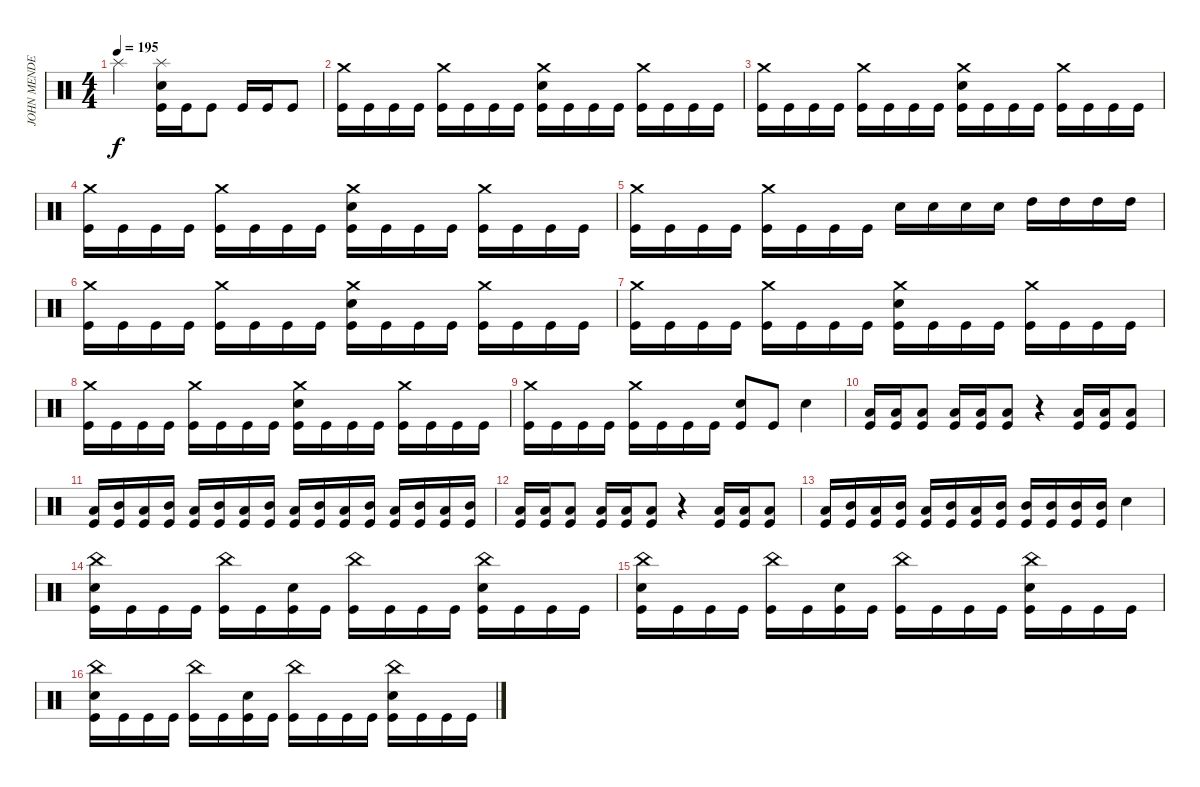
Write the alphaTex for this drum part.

\track ("JOHN MENDESSSSSSS" "JOHN MENDE") {instrument percussion}
\staff {score}
\articulation defaults
\ts (4 4)
\tempo 195
\clef neutral
\ks c "Splash (hit)".2{dy f}
("Kick (hit)" "Snare (hit) 2" "Splash (hit)").16 "Kick (hit)".16 "Kick (hit)".8 "Kick (hit)".16 "Kick (hit)".16 "Kick (hit)".8 |
("Kick (hit)" "Crash medium (hit)").16 "Kick (hit)".16 "Kick (hit)".16 "Kick (hit)".16 ("Kick (hit)" "Crash medium (hit)").16 "Kick (hit)".16 "Kick (hit)".16 "Kick (hit)".16 ("Kick (hit)" "Snare (hit) 2" "Crash medium (hit)").16 "Kick (hit)".16 "Kick (hit)".16 "Kick (hit)".16 ("Kick (hit)" "Crash medium (hit)").16 "Kick (hit)".16 "Kick (hit)".16 "Kick (hit)".16 |
("Kick (hit)" "Crash medium (hit)").16 "Kick (hit)".16 "Kick (hit)".16 "Kick (hit)".16 ("Kick (hit)" "Crash medium (hit)").16 "Kick (hit)".16 "Kick (hit)".16 "Kick (hit)".16 ("Kick (hit)" "Snare (hit) 2" "Crash medium (hit)").16 "Kick (hit)".16 "Kick (hit)".16 "Kick (hit)".16 ("Kick (hit)" "Crash medium (hit)").16 "Kick (hit)".16 "Kick (hit)".16 "Kick (hit)".16 |
("Kick (hit)" "Crash medium (hit)").16 "Kick (hit)".16 "Kick (hit)".16 "Kick (hit)".16 ("Kick (hit)" "Crash medium (hit)").16 "Kick (hit)".16 "Kick (hit)".16 "Kick (hit)".16 ("Kick (hit)" "Snare (hit) 2" "Crash medium (hit)").16 "Kick (hit)".16 "Kick (hit)".16 "Kick (hit)".16 ("Kick (hit)" "Crash medium (hit)").16 "Kick (hit)".16 "Kick (hit)".16 "Kick (hit)".16 |
("Kick (hit)" "Crash medium (hit)").16 "Kick (hit)".16 "Kick (hit)".16 "Kick (hit)".16 ("Kick (hit)" "Crash medium (hit)").16 "Kick (hit)".16 "Kick (hit)".16 "Kick (hit)".16 "Snare (hit) 2".16 "Snare (hit) 2".16 "Snare (hit) 2".16 "Snare (hit) 2".16 "High Tom (hit)".16 "High Tom (hit)".16 "High Tom (hit)".16 "High Tom (hit)".16 |
("Kick (hit)" "Crash medium (hit)").16 "Kick (hit)".16 "Kick (hit)".16 "Kick (hit)".16 ("Kick (hit)" "Crash medium (hit)").16 "Kick (hit)".16 "Kick (hit)".16 "Kick (hit)".16 ("Kick (hit)" "Snare (hit) 2" "Crash medium (hit)").16 "Kick (hit)".16 "Kick (hit)".16 "Kick (hit)".16 ("Kick (hit)" "Crash medium (hit)").16 "Kick (hit)".16 "Kick (hit)".16 "Kick (hit)".16 |
("Kick (hit)" "Crash medium (hit)").16 "Kick (hit)".16 "Kick (hit)".16 "Kick (hit)".16 ("Kick (hit)" "Crash medium (hit)").16 "Kick (hit)".16 "Kick (hit)".16 "Kick (hit)".16 ("Kick (hit)" "Snare (hit) 2" "Crash medium (hit)").16 "Kick (hit)".16 "Kick (hit)".16 "Kick (hit)".16 ("Kick (hit)" "Crash medium (hit)").16 "Kick (hit)".16 "Kick (hit)".16 "Kick (hit)".16 |
("Kick (hit)" "Crash medium (hit)").16 "Kick (hit)".16 "Kick (hit)".16 "Kick (hit)".16 ("Kick (hit)" "Crash medium (hit)").16 "Kick (hit)".16 "Kick (hit)".16 "Kick (hit)".16 ("Kick (hit)" "Snare (hit) 2" "Crash medium (hit)").16 "Kick (hit)".16 "Kick (hit)".16 "Kick (hit)".16 ("Kick (hit)" "Crash medium (hit)").16 "Kick (hit)".16 "Kick (hit)".16 "Kick (hit)".16 |
("Kick (hit)" "Crash medium (hit)").16 "Kick (hit)".16 "Kick (hit)".16 "Kick (hit)".16 ("Kick (hit)" "Crash medium (hit)").16 "Kick (hit)".16 "Kick (hit)".16 "Kick (hit)".16 ("Kick (hit)" "Snare (hit) 2").8 "Kick (hit)".8 "Snare (hit) 2".4 |
("Kick (hit)" "Low Tom (hit)").16 ("Kick (hit)" "Low Tom (hit)").16 ("Kick (hit)" "Low Tom (hit)").8 ("Kick (hit)" "Low Tom (hit)").16 ("Kick (hit)" "Low Tom (hit)").16 ("Kick (hit)" "Low Tom (hit)").8 r.4 ("Kick (hit)" "Low Tom (hit)").16 ("Kick (hit)" "Low Tom (hit)").16 ("Kick (hit)" "Low Tom (hit)").8 |
("Kick (hit)" "Low Tom (hit)").16 ("Kick (hit)" "Mid Tom (hit)").16 ("Kick (hit)" "Low Tom (hit)").16 ("Kick (hit)" "Mid Tom (hit)").16 ("Kick (hit)" "Low Tom (hit)").16 ("Kick (hit)" "Mid Tom (hit)").16 ("Kick (hit)" "Low Tom (hit)").16 ("Kick (hit)" "Mid Tom (hit)").16 ("Kick (hit)" "Low Tom (hit)").16 ("Kick (hit)" "Mid Tom (hit)").16 ("Kick (hit)" "Low Tom (hit)").16 ("Kick (hit)" "Mid Tom (hit)").16 ("Kick (hit)" "Low Tom (hit)").16 ("Kick (hit)" "Mid Tom (hit)").16 ("Kick (hit)" "Low Tom (hit)").16 ("Kick (hit)" "Mid Tom (hit)").16 |
("Kick (hit)" "Low Tom (hit)").16 ("Kick (hit)" "Low Tom (hit)").16 ("Kick (hit)" "Low Tom (hit)").8 ("Kick (hit)" "Low Tom (hit)").16 ("Kick (hit)" "Low Tom (hit)").16 ("Kick (hit)" "Low Tom (hit)").8 r.4 ("Kick (hit)" "Low Tom (hit)").16 ("Kick (hit)" "Low Tom (hit)").16 ("Kick (hit)" "Low Tom (hit)").8 |
("Kick (hit)" "Low Tom (hit)").16 ("Kick (hit)" "Mid Tom (hit)").16 ("Kick (hit)" "Low Tom (hit)").16 ("Kick (hit)" "Mid Tom (hit)").16 ("Kick (hit)" "Low Tom (hit)").16 ("Kick (hit)" "Mid Tom (hit)").16 ("Kick (hit)" "Low Tom (hit)").16 ("Kick (hit)" "Mid Tom (hit)").16 ("Kick (hit)" "Mid Tom (hit)").16 ("Kick (hit)" "Mid Tom (hit)").16 ("Kick (hit)" "Mid Tom (hit)").16 ("Kick (hit)" "Mid Tom (hit)").16 "Snare (hit) 2".4 |
("Kick (hit)" "Snare (hit) 2" "China (hit)").16 "Kick (hit)".16 "Kick (hit)".16 "Kick (hit)".16 ("Kick (hit)" "China (hit)").16 "Kick (hit)".16 ("Kick (hit)" "Snare (hit) 2").16 "Kick (hit)".16 ("Kick (hit)" "China (hit)").16 "Kick (hit)".16 "Kick (hit)".16 "Kick (hit)".16 ("Kick (hit)" "Snare (hit) 2" "China (hit)").16 "Kick (hit)".16 "Kick (hit)".16 "Kick (hit)".16 |
("Kick (hit)" "Snare (hit) 2" "China (hit)").16 "Kick (hit)".16 "Kick (hit)".16 "Kick (hit)".16 ("Kick (hit)" "China (hit)").16 "Kick (hit)".16 ("Kick (hit)" "Snare (hit) 2").16 "Kick (hit)".16 ("Kick (hit)" "China (hit)").16 "Kick (hit)".16 "Kick (hit)".16 "Kick (hit)".16 ("Kick (hit)" "Snare (hit) 2" "China (hit)").16 "Kick (hit)".16 "Kick (hit)".16 "Kick (hit)".16 |
("Kick (hit)" "Snare (hit) 2" "China (hit)").16 "Kick (hit)".16 "Kick (hit)".16 "Kick (hit)".16 ("Kick (hit)" "China (hit)").16 "Kick (hit)".16 ("Kick (hit)" "Snare (hit) 2").16 "Kick (hit)".16 ("Kick (hit)" "China (hit)").16 "Kick (hit)".16 "Kick (hit)".16 "Kick (hit)".16 ("Kick (hit)" "Snare (hit) 2" "China (hit)").16 "Kick (hit)".16 "Kick (hit)".16 "Kick (hit)".16
